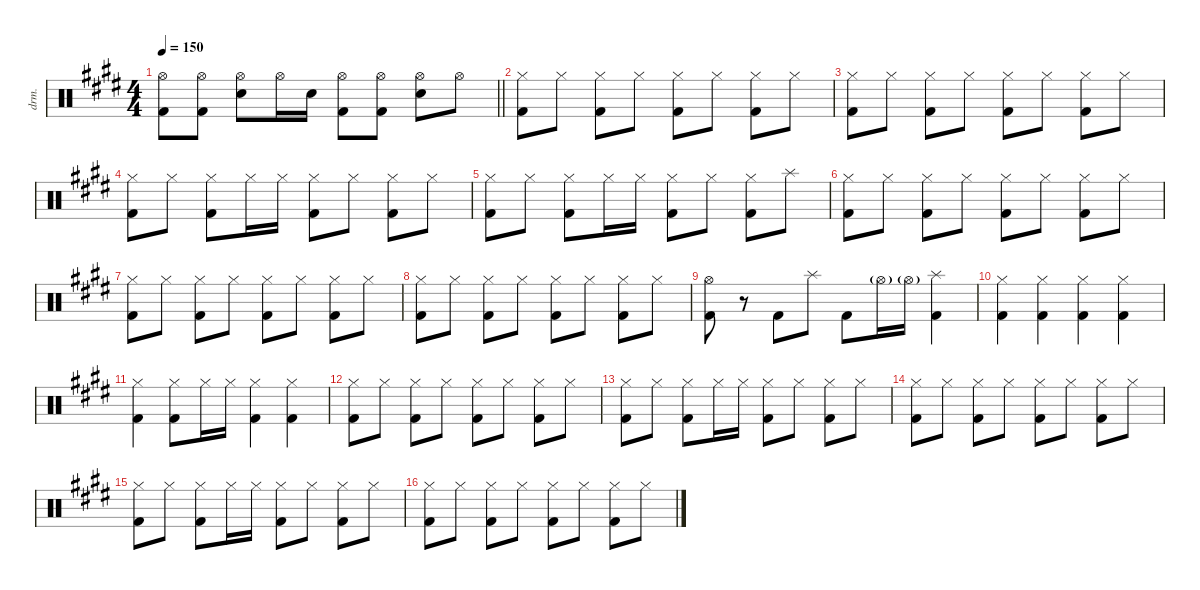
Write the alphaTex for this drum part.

\defaultSystemsLayout 4
\hideDynamics
\bracketExtendMode nobrackets
\track (" (Drums)" "drm.") {instrument percussion}
\staff {score}
\articulation defaults
\ts (4 4)
\tempo 150
\clef neutral
\barLineRight lightlight
\ks c#minor
("Hi-Hat (open)"{acc forcenatural} "Kick (hit) 2"{acc forcenatural}).8{dy f} ("Hi-Hat (open)"{acc forcenatural} "Kick (hit) 2"{acc forcenatural}).8 ("Hi-Hat (open)"{acc forcenatural} "Snare (hit) 2"{acc forcenatural}).8 "Hi-Hat (open)"{acc forcenatural}.16 "Snare (hit) 2"{acc forcenatural}.16{dy mf} ("Hi-Hat (open)"{acc forcenatural} "Kick (hit) 2"{acc forcenatural}).8{dy f} ("Hi-Hat (open)"{acc forcenatural} "Kick (hit) 2"{acc forcenatural}).8 ("Hi-Hat (open)"{acc forcenatural} "Snare (hit) 2"{acc forcenatural}).8 "Hi-Hat (open)"{acc forcenatural}.8 |
("Hi-Hat (closed)"{acc forcenatural} "Kick (hit) 2"{acc forcenatural}).8 "Hi-Hat (closed)"{acc forcenatural}.8 ("Hi-Hat (closed)"{acc forcenatural} "Kick (hit) 2"{acc forcenatural}).8 "Hi-Hat (closed)"{acc forcenatural}.8 ("Hi-Hat (closed)"{acc forcenatural} "Kick (hit) 2"{acc forcenatural}).8 "Hi-Hat (closed)"{acc forcenatural}.8 ("Hi-Hat (closed)"{acc forcenatural} "Kick (hit) 2"{acc forcenatural}).8 "Hi-Hat (closed)"{acc forcenatural}.8 |
("Hi-Hat (closed)"{acc forcenatural} "Kick (hit) 2"{acc forcenatural}).8 "Hi-Hat (closed)"{acc forcenatural}.8 ("Hi-Hat (closed)"{acc forcenatural} "Kick (hit) 2"{acc forcenatural}).8 "Hi-Hat (closed)"{acc forcenatural}.8 ("Hi-Hat (closed)"{acc forcenatural} "Kick (hit) 2"{acc forcenatural}).8 "Hi-Hat (closed)"{acc forcenatural}.8 ("Hi-Hat (closed)"{acc forcenatural} "Kick (hit) 2"{acc forcenatural}).8 "Hi-Hat (closed)"{acc forcenatural}.8 |
("Hi-Hat (closed)"{acc forcenatural} "Kick (hit) 2"{acc forcenatural}).8 "Hi-Hat (closed)"{acc forcenatural}.8 ("Hi-Hat (closed)"{acc forcenatural} "Kick (hit) 2"{acc forcenatural}).8 "Hi-Hat (closed)"{acc forcenatural}.16 "Hi-Hat (closed)"{acc forcenatural}.16 ("Hi-Hat (closed)"{acc forcenatural} "Kick (hit) 2"{acc forcenatural}).8 "Hi-Hat (closed)"{acc forcenatural}.8 ("Hi-Hat (closed)"{acc forcenatural} "Kick (hit) 2"{acc forcenatural}).8 "Hi-Hat (closed)"{acc forcenatural}.8 |
("Hi-Hat (closed)"{acc forcenatural} "Kick (hit) 2"{acc forcenatural}).8 "Hi-Hat (closed)"{acc forcenatural}.8 ("Hi-Hat (closed)"{acc forcenatural} "Kick (hit) 2"{acc forcenatural}).8 "Hi-Hat (closed)"{acc forcenatural}.16 "Hi-Hat (closed)"{acc forcenatural}.16 ("Hi-Hat (closed)"{acc forcenatural} "Kick (hit) 2"{acc forcenatural}).8 "Hi-Hat (closed)"{acc forcenatural}.8 ("Hi-Hat (closed)"{acc forcenatural} "Kick (hit) 2"{acc forcenatural}).8 "Splash (hit)"{acc forcenatural}.8 |
("Hi-Hat (closed)"{acc forcenatural} "Kick (hit) 2"{acc forcenatural}).8 "Hi-Hat (closed)"{acc forcenatural}.8 ("Hi-Hat (closed)"{acc forcenatural} "Kick (hit) 2"{acc forcenatural}).8 "Hi-Hat (closed)"{acc forcenatural}.8 ("Hi-Hat (closed)"{acc forcenatural} "Kick (hit) 2"{acc forcenatural}).8 "Hi-Hat (closed)"{acc forcenatural}.8 ("Hi-Hat (closed)"{acc forcenatural} "Kick (hit) 2"{acc forcenatural}).8 "Hi-Hat (closed)"{acc forcenatural}.8 |
("Hi-Hat (closed)"{acc forcenatural} "Kick (hit) 2"{acc forcenatural}).8 "Hi-Hat (closed)"{acc forcenatural}.8 ("Hi-Hat (closed)"{acc forcenatural} "Kick (hit) 2"{acc forcenatural}).8 "Hi-Hat (closed)"{acc forcenatural}.8 ("Hi-Hat (closed)"{acc forcenatural} "Kick (hit) 2"{acc forcenatural}).8 "Hi-Hat (closed)"{acc forcenatural}.8 ("Hi-Hat (closed)"{acc forcenatural} "Kick (hit) 2"{acc forcenatural}).8 "Hi-Hat (closed)"{acc forcenatural}.8 |
("Hi-Hat (closed)"{acc forcenatural} "Kick (hit) 2"{acc forcenatural}).8 "Hi-Hat (closed)"{acc forcenatural}.8 ("Hi-Hat (closed)"{acc forcenatural} "Kick (hit) 2"{acc forcenatural}).8 "Hi-Hat (closed)"{acc forcenatural}.8 ("Hi-Hat (closed)"{acc forcenatural} "Kick (hit) 2"{acc forcenatural}).8 "Hi-Hat (closed)"{acc forcenatural}.8 ("Hi-Hat (closed)"{acc forcenatural} "Kick (hit) 2"{acc forcenatural}).8 "Hi-Hat (closed)"{acc forcenatural}.8 |
("Hi-Hat (open)"{acc forcenatural} "Kick (hit) 2"{acc forcenatural}).8 r.8 "Kick (hit) 2"{acc forcenatural}.8 "Splash (hit)"{acc forcenatural}.8 "Kick (hit) 2"{acc forcenatural}.8 "Hi-Hat (open)"{g acc forcenatural}.16{dy mf} "Hi-Hat (open)"{g acc forcenatural}.16 ("Splash (hit)"{acc forcenatural} "Kick (hit) 2"{acc forcenatural}).4{dy f} |
("Hi-Hat (closed)"{acc forcenatural} "Kick (hit) 2"{acc forcenatural}).4 ("Hi-Hat (closed)"{acc forcenatural} "Kick (hit) 2"{acc forcenatural}).4 ("Hi-Hat (closed)"{acc forcenatural} "Kick (hit) 2"{acc forcenatural}).4 ("Hi-Hat (closed)"{acc forcenatural} "Kick (hit) 2"{acc forcenatural}).4 |
("Hi-Hat (closed)"{acc forcenatural} "Kick (hit) 2"{acc forcenatural}).4 ("Hi-Hat (closed)"{acc forcenatural} "Kick (hit) 2"{acc forcenatural}).8 "Hi-Hat (closed)"{acc forcenatural}.16 "Hi-Hat (closed)"{acc forcenatural}.16 ("Hi-Hat (closed)"{acc forcenatural} "Kick (hit) 2"{acc forcenatural}).4 ("Hi-Hat (closed)"{acc forcenatural} "Kick (hit) 2"{acc forcenatural}).4 |
("Hi-Hat (closed)"{acc forcenatural} "Kick (hit) 2"{acc forcenatural}).8 "Hi-Hat (closed)"{acc forcenatural}.8 ("Hi-Hat (closed)"{acc forcenatural} "Kick (hit) 2"{acc forcenatural}).8 "Hi-Hat (closed)"{acc forcenatural}.8 ("Hi-Hat (closed)"{acc forcenatural} "Kick (hit) 2"{acc forcenatural}).8 "Hi-Hat (closed)"{acc forcenatural}.8 ("Hi-Hat (closed)"{acc forcenatural} "Kick (hit) 2"{acc forcenatural}).8 "Hi-Hat (closed)"{acc forcenatural}.8 |
("Hi-Hat (closed)"{acc forcenatural} "Kick (hit) 2"{acc forcenatural}).8 "Hi-Hat (closed)"{acc forcenatural}.8 ("Hi-Hat (closed)"{acc forcenatural} "Kick (hit) 2"{acc forcenatural}).8 "Hi-Hat (closed)"{acc forcenatural}.16 "Hi-Hat (closed)"{acc forcenatural}.16 ("Hi-Hat (closed)"{acc forcenatural} "Kick (hit) 2"{acc forcenatural}).8 "Hi-Hat (closed)"{acc forcenatural}.8 ("Hi-Hat (closed)"{acc forcenatural} "Kick (hit) 2"{acc forcenatural}).8 "Hi-Hat (closed)"{acc forcenatural}.8 |
("Hi-Hat (closed)"{acc forcenatural} "Kick (hit) 2"{acc forcenatural}).8 "Hi-Hat (closed)"{acc forcenatural}.8 ("Hi-Hat (closed)"{acc forcenatural} "Kick (hit) 2"{acc forcenatural}).8 "Hi-Hat (closed)"{acc forcenatural}.8 ("Hi-Hat (closed)"{acc forcenatural} "Kick (hit) 2"{acc forcenatural}).8 "Hi-Hat (closed)"{acc forcenatural}.8 ("Hi-Hat (closed)"{acc forcenatural} "Kick (hit) 2"{acc forcenatural}).8 "Hi-Hat (closed)"{acc forcenatural}.8 |
("Hi-Hat (closed)"{acc forcenatural} "Kick (hit) 2"{acc forcenatural}).8 "Hi-Hat (closed)"{acc forcenatural}.8 ("Hi-Hat (closed)"{acc forcenatural} "Kick (hit) 2"{acc forcenatural}).8 "Hi-Hat (closed)"{acc forcenatural}.16 "Hi-Hat (closed)"{acc forcenatural}.16 ("Hi-Hat (closed)"{acc forcenatural} "Kick (hit) 2"{acc forcenatural}).8 "Hi-Hat (closed)"{acc forcenatural}.8 ("Hi-Hat (closed)"{acc forcenatural} "Kick (hit) 2"{acc forcenatural}).8 "Hi-Hat (closed)"{acc forcenatural}.8 |
("Hi-Hat (closed)"{acc forcenatural} "Kick (hit) 2"{acc forcenatural}).8 "Hi-Hat (closed)"{acc forcenatural}.8 ("Hi-Hat (closed)"{acc forcenatural} "Kick (hit) 2"{acc forcenatural}).8 "Hi-Hat (closed)"{acc forcenatural}.8 ("Hi-Hat (closed)"{acc forcenatural} "Kick (hit) 2"{acc forcenatural}).8 "Hi-Hat (closed)"{acc forcenatural}.8 ("Hi-Hat (closed)"{acc forcenatural} "Kick (hit) 2"{acc forcenatural}).8 "Hi-Hat (closed)"{acc forcenatural}.8
